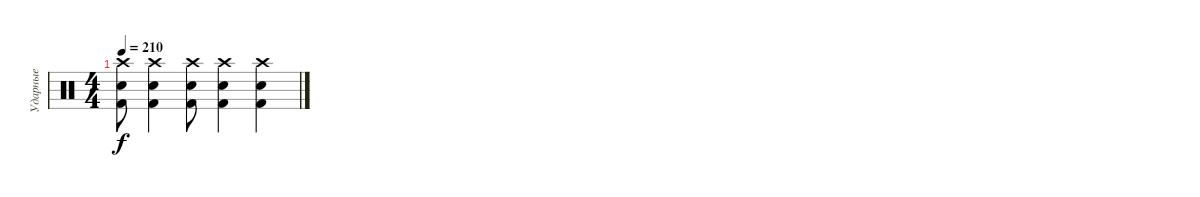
\track ("Ударные" "Ударные") {instrument percussion}
\staff {score}
\articulation defaults
\ts (4 4)
\tempo 210
\clef neutral
\ks c
("Crash high (hit)" "Snare (hit) 2" "Kick (hit) 2").8{dy f} ("Crash high (hit)" "Snare (hit) 2" "Kick (hit) 2").4 ("Crash high (hit)" "Snare (hit) 2" "Kick (hit) 2").8 ("Crash high (hit)" "Snare (hit) 2" "Kick (hit) 2").4 ("Crash high (hit)" "Snare (hit) 2" "Kick (hit) 2").4
